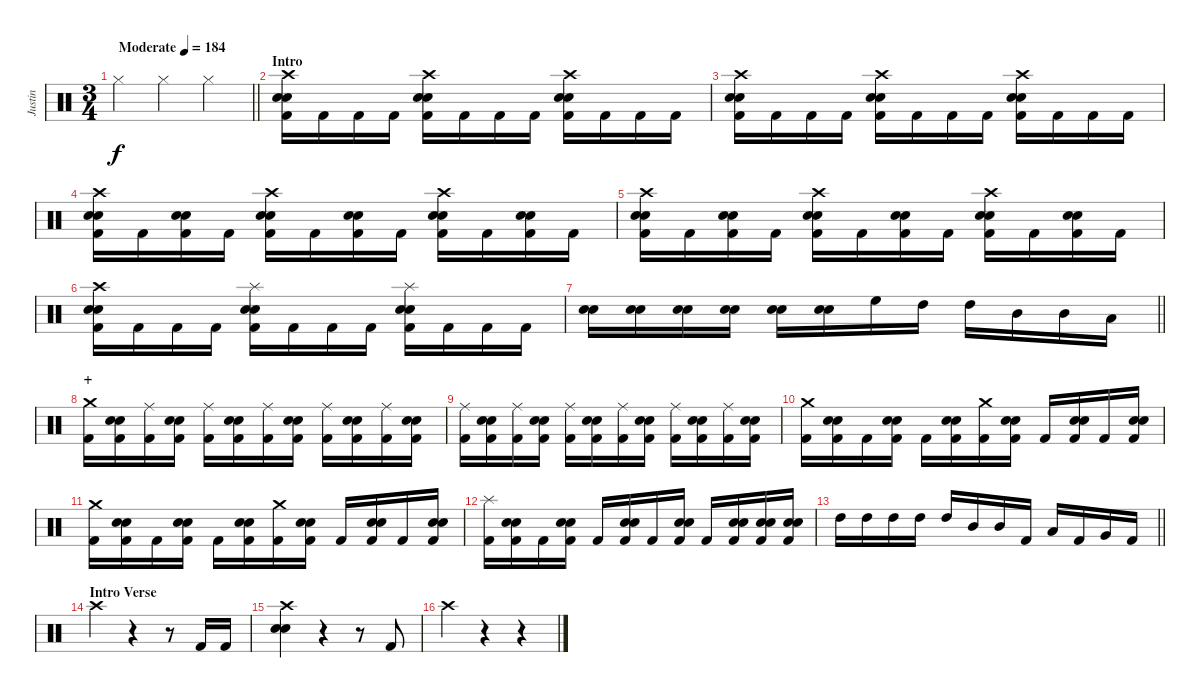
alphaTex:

\track ("Justin" "Justin") {instrument percussion}
\staff {score}
\articulation defaults
\ts (3 4)
\tempo (184 "Moderate")
\clef neutral
\barLineRight lightlight
\ks c "Hi-Hat (closed)".4{dy f} "Hi-Hat (closed)".4 "Hi-Hat (closed)".4
|
\section ("" "Intro")
("Crash high (hit)" "Electric Snare (hit)" "Snare (hit) 2" "Kick (hit) 2").16 "Kick (hit) 2".16 "Kick (hit) 2".16 "Kick (hit) 2".16 ("Crash high (hit)" "Electric Snare (hit)" "Snare (hit) 2" "Kick (hit) 2").16 "Kick (hit) 2".16 "Kick (hit) 2".16 "Kick (hit) 2".16 ("Crash high (hit)" "Electric Snare (hit)" "Snare (hit) 2" "Kick (hit) 2").16 "Kick (hit) 2".16 "Kick (hit) 2".16 "Kick (hit) 2".16 |
("Crash high (hit)" "Electric Snare (hit)" "Snare (hit) 2" "Kick (hit) 2").16 "Kick (hit) 2".16 "Kick (hit) 2".16 "Kick (hit) 2".16 ("Crash high (hit)" "Electric Snare (hit)" "Snare (hit) 2" "Kick (hit) 2").16 "Kick (hit) 2".16 "Kick (hit) 2".16 "Kick (hit) 2".16 ("Crash high (hit)" "Electric Snare (hit)" "Snare (hit) 2" "Kick (hit) 2").16 "Kick (hit) 2".16 "Kick (hit) 2".16 "Kick (hit) 2".16 |
("Crash high (hit)" "Electric Snare (hit)" "Snare (hit) 2" "Kick (hit) 2").16 "Kick (hit) 2".16 ("Electric Snare (hit)" "Snare (hit) 2" "Kick (hit) 2").16 "Kick (hit) 2".16 ("Crash high (hit)" "Electric Snare (hit)" "Snare (hit) 2" "Kick (hit) 2").16 "Kick (hit) 2".16 ("Electric Snare (hit)" "Snare (hit) 2" "Kick (hit) 2").16 "Kick (hit) 2".16 ("Crash high (hit)" "Electric Snare (hit)" "Snare (hit) 2" "Kick (hit) 2").16 "Kick (hit) 2".16 ("Electric Snare (hit)" "Snare (hit) 2" "Kick (hit) 2").16 "Kick (hit) 2".16 |
("Crash high (hit)" "Electric Snare (hit)" "Snare (hit) 2" "Kick (hit) 2").16 "Kick (hit) 2".16 ("Electric Snare (hit)" "Snare (hit) 2" "Kick (hit) 2").16 "Kick (hit) 2".16 ("Crash high (hit)" "Electric Snare (hit)" "Snare (hit) 2" "Kick (hit) 2").16 "Kick (hit) 2".16 ("Electric Snare (hit)" "Snare (hit) 2" "Kick (hit) 2").16 "Kick (hit) 2".16 ("Crash high (hit)" "Electric Snare (hit)" "Snare (hit) 2" "Kick (hit) 2").16 "Kick (hit) 2".16 ("Electric Snare (hit)" "Snare (hit) 2" "Kick (hit) 2").16 "Kick (hit) 2".16 |
("Crash high (hit)" "Electric Snare (hit)" "Snare (hit) 2" "Kick (hit) 2").16 "Kick (hit) 2".16 "Kick (hit) 2".16 "Kick (hit) 2".16 ("Splash (hit)" "Electric Snare (hit)" "Snare (hit) 2" "Kick (hit) 2").16 "Kick (hit) 2".16 "Kick (hit) 2".16 "Kick (hit) 2".16 ("Splash (hit)" "Electric Snare (hit)" "Snare (hit) 2" "Kick (hit) 2").16 "Kick (hit) 2".16 "Kick (hit) 2".16 "Kick (hit) 2".16 |
\barLineRight lightlight
("Electric Snare (hit)" "Snare (hit) 2").16 ("Electric Snare (hit)" "Snare (hit) 2").16 ("Electric Snare (hit)" "Snare (hit) 2").16 ("Electric Snare (hit)" "Snare (hit) 2").16 ("Electric Snare (hit)" "Snare (hit) 2").16 ("Electric Snare (hit)" "Snare (hit) 2").16 "High Floor Tom (hit)".16 "High Tom (hit)".16 "High Tom (hit)".16 "Mid Tom (hit)".16 "Mid Tom (hit)".16 "Low Tom (hit)".16 |
\section ("" "+")
("Crash medium (hit)" "Kick (hit) 2").16 ("Electric Snare (hit)" "Snare (hit) 2" "Kick (hit) 2").16 ("Ride (middle)" "Kick (hit) 2").16 ("Electric Snare (hit)" "Snare (hit) 2" "Kick (hit) 2").16 ("Ride (middle)" "Kick (hit) 2").16 ("Electric Snare (hit)" "Snare (hit) 2" "Kick (hit) 2").16 ("Ride (middle)" "Kick (hit) 2").16 ("Electric Snare (hit)" "Snare (hit) 2" "Kick (hit) 2").16 ("Ride (middle)" "Kick (hit) 2").16 ("Electric Snare (hit)" "Snare (hit) 2" "Kick (hit) 2").16 ("Ride (middle)" "Kick (hit) 2").16 ("Electric Snare (hit)" "Snare (hit) 2" "Kick (hit) 2").16 |
("Ride (middle)" "Kick (hit) 2").16 ("Electric Snare (hit)" "Snare (hit) 2" "Kick (hit) 2").16 ("Ride (middle)" "Kick (hit) 2").16 ("Electric Snare (hit)" "Snare (hit) 2" "Kick (hit) 2").16 ("Ride (middle)" "Kick (hit) 2").16 ("Electric Snare (hit)" "Snare (hit) 2" "Kick (hit) 2").16 ("Ride (middle)" "Kick (hit) 2").16 ("Electric Snare (hit)" "Snare (hit) 2" "Kick (hit) 2").16 ("Ride (middle)" "Kick (hit) 2").16 ("Electric Snare (hit)" "Snare (hit) 2" "Kick (hit) 2").16 ("Ride (middle)" "Kick (hit) 2").16 ("Electric Snare (hit)" "Snare (hit) 2" "Kick (hit) 2").16 |
("Crash medium (hit)" "Kick (hit) 2").16 ("Electric Snare (hit)" "Snare (hit) 2" "Kick (hit) 2").16 "Kick (hit) 2".16 ("Electric Snare (hit)" "Snare (hit) 2" "Kick (hit) 2").16 "Kick (hit) 2".16 ("Electric Snare (hit)" "Snare (hit) 2" "Kick (hit) 2").16 ("Crash medium (hit)" "Kick (hit) 2").16 ("Electric Snare (hit)" "Snare (hit) 2" "Kick (hit) 2").16 "Kick (hit) 2".16 ("Electric Snare (hit)" "Snare (hit) 2" "Kick (hit) 2").16 "Kick (hit) 2".16 ("Electric Snare (hit)" "Snare (hit) 2" "Kick (hit) 2").16 |
("Crash medium (hit)" "Kick (hit) 2").16 ("Electric Snare (hit)" "Snare (hit) 2" "Kick (hit) 2").16 "Kick (hit) 2".16 ("Electric Snare (hit)" "Snare (hit) 2" "Kick (hit) 2").16 "Kick (hit) 2".16 ("Electric Snare (hit)" "Snare (hit) 2" "Kick (hit) 2").16 ("Crash medium (hit)" "Kick (hit) 2").16 ("Electric Snare (hit)" "Snare (hit) 2" "Kick (hit) 2").16 "Kick (hit) 2".16 ("Electric Snare (hit)" "Snare (hit) 2" "Kick (hit) 2").16 "Kick (hit) 2".16 ("Electric Snare (hit)" "Snare (hit) 2" "Kick (hit) 2").16 |
("Splash (hit)" "Kick (hit) 2").16 ("Electric Snare (hit)" "Snare (hit) 2" "Kick (hit) 2").16 "Kick (hit) 2".16 ("Electric Snare (hit)" "Snare (hit) 2" "Kick (hit) 2").16 "Kick (hit) 2".16 ("Electric Snare (hit)" "Snare (hit) 2" "Kick (hit) 2").16 "Kick (hit) 2".16 ("Electric Snare (hit)" "Snare (hit) 2" "Kick (hit) 2").16 "Kick (hit) 2".16 ("Electric Snare (hit)" "Snare (hit) 2" "Kick (hit) 2").16 ("Electric Snare (hit)" "Snare (hit) 2" "Kick (hit) 2").16 ("Electric Snare (hit)" "Snare (hit) 2" "Kick (hit) 2").16 |
\barLineRight lightlight "High Tom (hit)".16 "High Tom (hit)".16 "High Tom (hit)".16 "High Tom (hit)".16 "High Tom (hit)".16 "Mid Tom (hit)".16 "Mid Tom (hit)".16 "Kick (hit) 2".16 "Low Tom (hit)".16 "Kick (hit) 2".16 "Very Low Tom (hit)".16 "Kick (hit) 2".16
|
\section ("" "Intro Verse")
"Crash high (hit)".4 r.4 r.8 "Kick (hit) 2".16 "Kick (hit) 2".16 |
("Crash high (hit)" "Electric Snare (hit)" "Snare (hit) 2").4 r.4 r.8 "Kick (hit) 2".8 |
"Crash high (hit)".4 r.4 r.4
